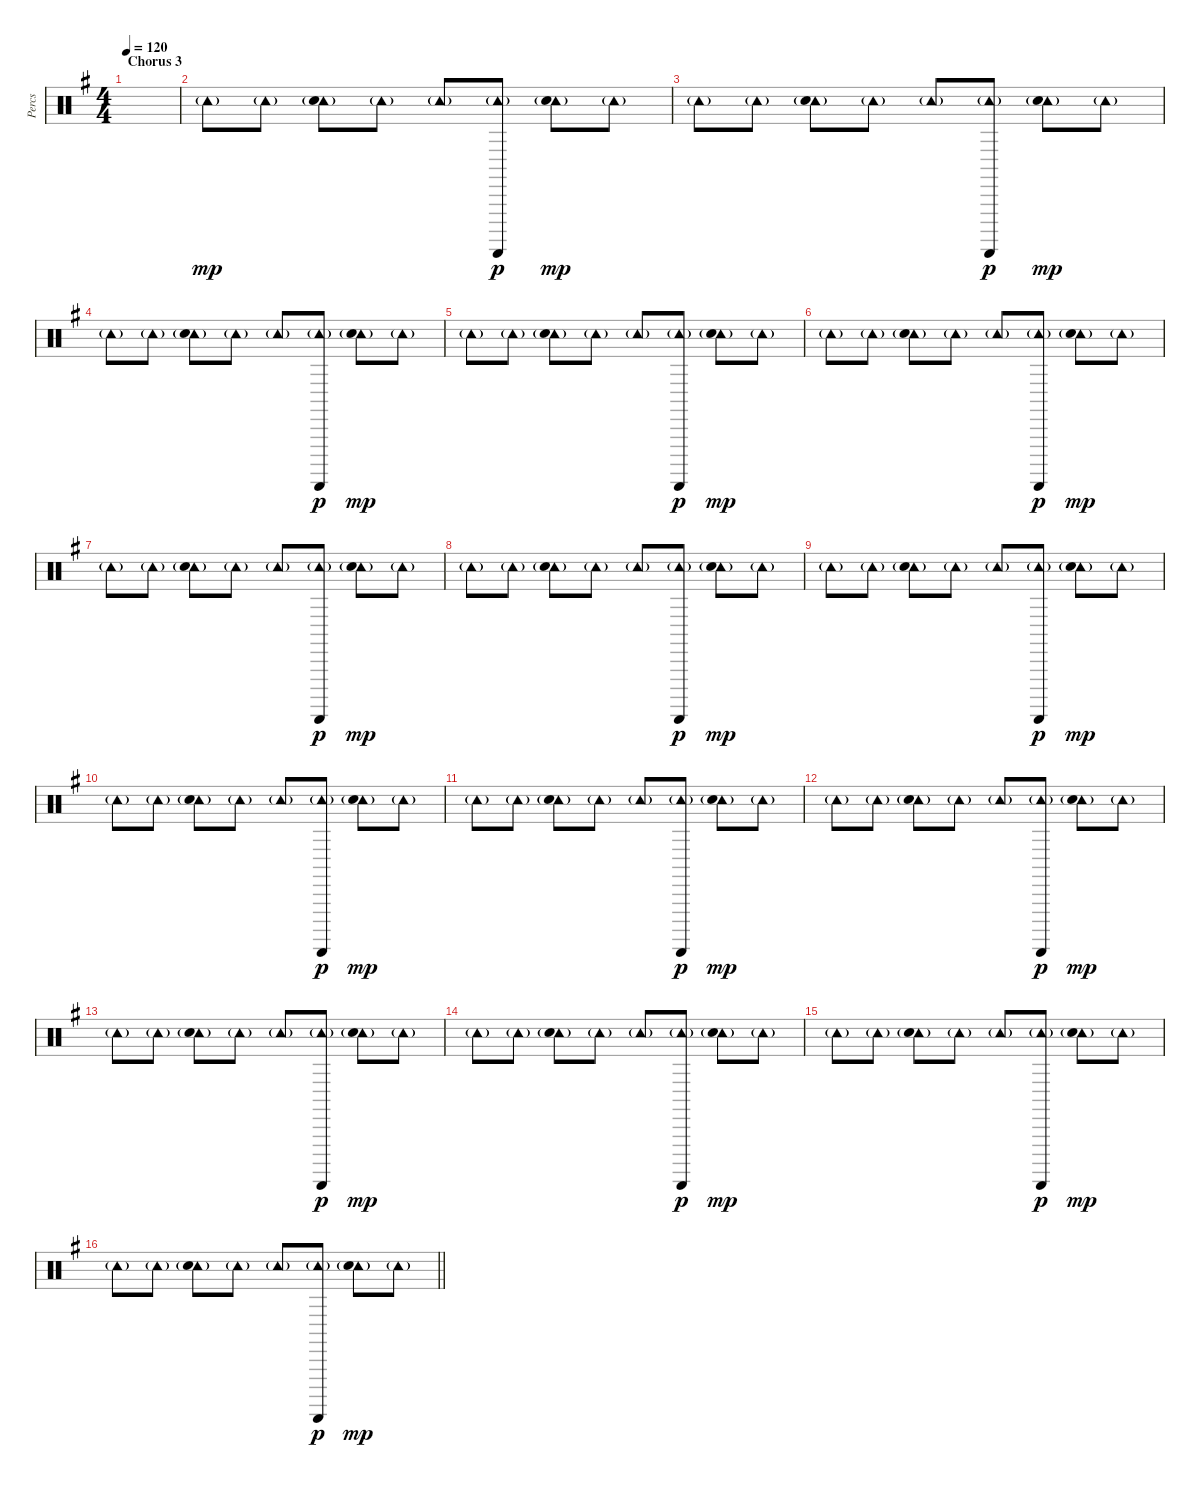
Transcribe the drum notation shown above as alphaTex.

\track ("Percs" "Percs") {instrument percussion}
\staff {score}
\articulation defaults
\ts (4 4)
\section ("" "Chorus 3")
\tempo 120
\clef neutral
\ks g
|
"Tambourine (hit)"{g}.8{dy mp} "Tambourine (hit)"{g}.8 ("Tambourine (hit)"{g} "Hand Clap (hit)").8 "Tambourine (hit)"{g}.8 "Tambourine (hit)"{g}.8 ("Tambourine (hit)"{g} "Guiro (scrap-return)").8{dy p} ("Tambourine (hit)"{g} "Hand Clap (hit)").8{dy mp} "Tambourine (hit)"{g}.8 |
"Tambourine (hit)"{g}.8 "Tambourine (hit)"{g}.8 ("Tambourine (hit)"{g} "Hand Clap (hit)").8 "Tambourine (hit)"{g}.8 "Tambourine (hit)"{g}.8 ("Tambourine (hit)"{g} "Guiro (scrap-return)").8{dy p} ("Tambourine (hit)"{g} "Hand Clap (hit)").8{dy mp} "Tambourine (hit)"{g}.8 |
"Tambourine (hit)"{g}.8 "Tambourine (hit)"{g}.8 ("Tambourine (hit)"{g} "Hand Clap (hit)").8 "Tambourine (hit)"{g}.8 "Tambourine (hit)"{g}.8 ("Tambourine (hit)"{g} "Guiro (scrap-return)").8{dy p} ("Tambourine (hit)"{g} "Hand Clap (hit)").8{dy mp} "Tambourine (hit)"{g}.8 |
"Tambourine (hit)"{g}.8 "Tambourine (hit)"{g}.8 ("Tambourine (hit)"{g} "Hand Clap (hit)").8 "Tambourine (hit)"{g}.8 "Tambourine (hit)"{g}.8 ("Tambourine (hit)"{g} "Guiro (scrap-return)").8{dy p} ("Tambourine (hit)"{g} "Hand Clap (hit)").8{dy mp} "Tambourine (hit)"{g}.8 |
"Tambourine (hit)"{g}.8 "Tambourine (hit)"{g}.8 ("Tambourine (hit)"{g} "Hand Clap (hit)").8 "Tambourine (hit)"{g}.8 "Tambourine (hit)"{g}.8 ("Tambourine (hit)"{g} "Guiro (scrap-return)").8{dy p} ("Tambourine (hit)"{g} "Hand Clap (hit)").8{dy mp} "Tambourine (hit)"{g}.8 |
"Tambourine (hit)"{g}.8 "Tambourine (hit)"{g}.8 ("Tambourine (hit)"{g} "Hand Clap (hit)").8 "Tambourine (hit)"{g}.8 "Tambourine (hit)"{g}.8 ("Tambourine (hit)"{g} "Guiro (scrap-return)").8{dy p} ("Tambourine (hit)"{g} "Hand Clap (hit)").8{dy mp} "Tambourine (hit)"{g}.8 |
"Tambourine (hit)"{g}.8 "Tambourine (hit)"{g}.8 ("Tambourine (hit)"{g} "Hand Clap (hit)").8 "Tambourine (hit)"{g}.8 "Tambourine (hit)"{g}.8 ("Tambourine (hit)"{g} "Guiro (scrap-return)").8{dy p} ("Tambourine (hit)"{g} "Hand Clap (hit)").8{dy mp} "Tambourine (hit)"{g}.8 |
"Tambourine (hit)"{g}.8 "Tambourine (hit)"{g}.8 ("Tambourine (hit)"{g} "Hand Clap (hit)").8 "Tambourine (hit)"{g}.8 "Tambourine (hit)"{g}.8 ("Tambourine (hit)"{g} "Guiro (scrap-return)").8{dy p} ("Tambourine (hit)"{g} "Hand Clap (hit)").8{dy mp} "Tambourine (hit)"{g}.8 |
"Tambourine (hit)"{g}.8 "Tambourine (hit)"{g}.8 ("Tambourine (hit)"{g} "Hand Clap (hit)").8 "Tambourine (hit)"{g}.8 "Tambourine (hit)"{g}.8 ("Tambourine (hit)"{g} "Guiro (scrap-return)").8{dy p} ("Tambourine (hit)"{g} "Hand Clap (hit)").8{dy mp} "Tambourine (hit)"{g}.8 |
"Tambourine (hit)"{g}.8 "Tambourine (hit)"{g}.8 ("Tambourine (hit)"{g} "Hand Clap (hit)").8 "Tambourine (hit)"{g}.8 "Tambourine (hit)"{g}.8 ("Tambourine (hit)"{g} "Guiro (scrap-return)").8{dy p} ("Tambourine (hit)"{g} "Hand Clap (hit)").8{dy mp} "Tambourine (hit)"{g}.8 |
"Tambourine (hit)"{g}.8 "Tambourine (hit)"{g}.8 ("Tambourine (hit)"{g} "Hand Clap (hit)").8 "Tambourine (hit)"{g}.8 "Tambourine (hit)"{g}.8 ("Tambourine (hit)"{g} "Guiro (scrap-return)").8{dy p} ("Tambourine (hit)"{g} "Hand Clap (hit)").8{dy mp} "Tambourine (hit)"{g}.8 |
"Tambourine (hit)"{g}.8 "Tambourine (hit)"{g}.8 ("Tambourine (hit)"{g} "Hand Clap (hit)").8 "Tambourine (hit)"{g}.8 "Tambourine (hit)"{g}.8 ("Tambourine (hit)"{g} "Guiro (scrap-return)").8{dy p} ("Tambourine (hit)"{g} "Hand Clap (hit)").8{dy mp} "Tambourine (hit)"{g}.8 |
"Tambourine (hit)"{g}.8 "Tambourine (hit)"{g}.8 ("Tambourine (hit)"{g} "Hand Clap (hit)").8 "Tambourine (hit)"{g}.8 "Tambourine (hit)"{g}.8 ("Tambourine (hit)"{g} "Guiro (scrap-return)").8{dy p} ("Tambourine (hit)"{g} "Hand Clap (hit)").8{dy mp} "Tambourine (hit)"{g}.8 |
"Tambourine (hit)"{g}.8 "Tambourine (hit)"{g}.8 ("Tambourine (hit)"{g} "Hand Clap (hit)").8 "Tambourine (hit)"{g}.8 "Tambourine (hit)"{g}.8 ("Tambourine (hit)"{g} "Guiro (scrap-return)").8{dy p} ("Tambourine (hit)"{g} "Hand Clap (hit)").8{dy mp} "Tambourine (hit)"{g}.8 |
\barLineRight lightlight "Tambourine (hit)"{g}.8 "Tambourine (hit)"{g}.8
("Tambourine (hit)"{g} "Hand Clap (hit)").8 "Tambourine (hit)"{g}.8 "Tambourine (hit)"{g}.8 ("Tambourine (hit)"{g} "Guiro (scrap-return)").8{dy p} ("Tambourine (hit)"{g} "Hand Clap (hit)").8{dy mp} "Tambourine (hit)"{g}.8
